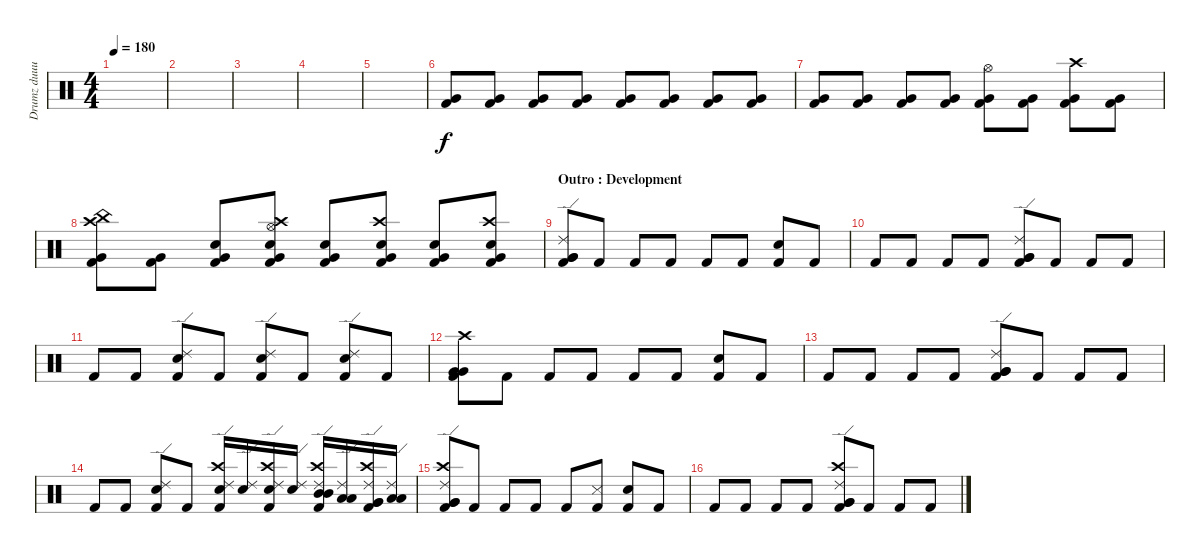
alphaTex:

\track ("Drumz duuuuude" "Drumz duuu") {instrument percussion}
\staff {score}
\articulation defaults
\ts (4 4)
\tempo 180
\clef neutral
\ks c
|
|
|
|
|
("Very Low Tom (hit)" "Kick (hit) 2").8{volume 15} ("Very Low Tom (hit)" "Kick (hit) 2").8 ("Very Low Tom (hit)" "Kick (hit) 2").8 ("Very Low Tom (hit)" "Kick (hit) 2").8 ("Very Low Tom (hit)" "Kick (hit) 2").8 ("Very Low Tom (hit)" "Kick (hit) 2").8 ("Very Low Tom (hit)" "Kick (hit) 2").8 ("Very Low Tom (hit)" "Kick (hit) 2").8 |
("Very Low Tom (hit)" "Kick (hit) 2").8 ("Very Low Tom (hit)" "Kick (hit) 2").8 ("Very Low Tom (hit)" "Kick (hit) 2").8 ("Very Low Tom (hit)" "Kick (hit) 2").8 ("Hi-Hat (open)" "Very Low Tom (hit)" "Kick (hit) 2").8 ("Very Low Tom (hit)" "Kick (hit) 2").8 ("Crash high (hit)" "Very Low Tom (hit)" "Kick (hit) 2").8 ("Very Low Tom (hit)" "Kick (hit) 2").8 |
("Crash high (hit)" "China (hit)" "Very Low Tom (hit)" "Kick (hit) 2").8 ("Very Low Tom (hit)" "Kick (hit) 2").8 ("Electric Snare (hit)" "Very Low Tom (hit)" "Kick (hit) 2").8 ("Crash high (hit)" "Hi-Hat (open)" "Snare (hit) 2" "Very Low Tom (hit)" "Kick (hit) 2").8 ("Electric Snare (hit)" "Very Low Tom (hit)" "Kick (hit) 2").8 ("Crash high (hit)" "Snare (hit) 2" "Very Low Tom (hit)" "Kick (hit) 2").8 ("Electric Snare (hit)" "Very Low Tom (hit)" "Kick (hit) 2").8 ("Crash high (hit)" "Snare (hit) 2" "Very Low Tom (hit)" "Kick (hit) 2").8 |
\section ("" "Outro : Development")
("Ride (edge) 2" "Kick (hit) 2" "Very Low Tom (hit)" "Very Low Tom (hit)").8 "Kick (hit) 2".8 "Kick (hit) 2".8 "Kick (hit) 2".8 "Kick (hit) 2".8 "Kick (hit) 2".8 ("Kick (hit) 2" "Snare (hit) 2").8 "Kick (hit) 2".8 |
"Kick (hit) 2".8 "Kick (hit) 2".8 "Kick (hit) 2".8 "Kick (hit) 2".8 ("Ride (edge) 2" "Kick (hit) 2" "Very Low Tom (hit)" "Very Low Tom (hit)").8 "Kick (hit) 2".8 "Kick (hit) 2".8 "Kick (hit) 2".8 |
"Kick (hit) 2".8 "Kick (hit) 2".8 ("Ride (edge) 2" "Kick (hit) 2" "Snare (hit) 2").8 "Kick (hit) 2".8 ("Ride (edge) 2" "Kick (hit) 2" "Electric Snare (hit)").8 "Kick (hit) 2".8 ("Ride (edge) 2" "Kick (hit) 2" "Electric Snare (hit)").8 "Kick (hit) 2".8 |
("Crash high (hit)" "Kick (hit) 2" "Very Low Tom (hit)" "Very Low Tom (hit)").8 "Kick (hit) 2".8 "Kick (hit) 2".8 "Kick (hit) 2".8 "Kick (hit) 2".8 "Kick (hit) 2".8 ("Kick (hit) 2" "Snare (hit) 2").8 "Kick (hit) 2".8 |
"Kick (hit) 2".8 "Kick (hit) 2".8 "Kick (hit) 2".8 "Kick (hit) 2".8 ("Ride (edge) 2" "Kick (hit) 2" "Very Low Tom (hit)" "Very Low Tom (hit)").8 "Kick (hit) 2".8 "Kick (hit) 2".8 "Kick (hit) 2".8 |
"Kick (hit) 2".8 "Kick (hit) 2".8 ("Ride (edge) 2" "Kick (hit) 2" "Snare (hit) 2").8 "Kick (hit) 2".8 ("Ride (edge) 2" "Crash high (hit)" "Kick (hit) 2" "Electric Snare (hit)").16 ("Ride (edge) 2" "Electric Snare (hit)").16 ("Ride (edge) 2" "Crash high (hit)" "Kick (hit) 2" "Electric Snare (hit)").16 ("Ride (edge) 2" "Electric Snare (hit)").16 ("Ride (edge) 2" "Crash high (hit)" "Kick (hit) 2" "Mid Tom (hit)" "Mid Tom (hit)").16 ("Ride (edge) 2" "Low Tom (hit)" "Low Tom (hit)").16 ("Ride (edge) 2" "Crash high (hit)" "Kick (hit) 2" "Very Low Tom (hit)" "Very Low Tom (hit)").16 ("Ride (edge) 2" "Low Floor Tom (hit)" "Low Floor Tom (hit)").16 |
("Ride (edge) 2" "Crash high (hit)" "Kick (hit) 2" "Very Low Tom (hit)" "Very Low Tom (hit)").8 "Kick (hit) 2".8 "Kick (hit) 2".8 "Kick (hit) 2".8 "Kick (hit) 2".8 ("Kick (hit) 2" "Snare (side stick) 3").8 ("Kick (hit) 2" "Snare (hit) 2").8 "Kick (hit) 2".8 |
"Kick (hit) 2".8 "Kick (hit) 2".8 "Kick (hit) 2".8 "Kick (hit) 2".8 ("Ride (edge) 2" "Crash high (hit)" "Kick (hit) 2" "Very Low Tom (hit)" "Very Low Tom (hit)").8 "Kick (hit) 2".8 "Kick (hit) 2".8 "Kick (hit) 2".8
